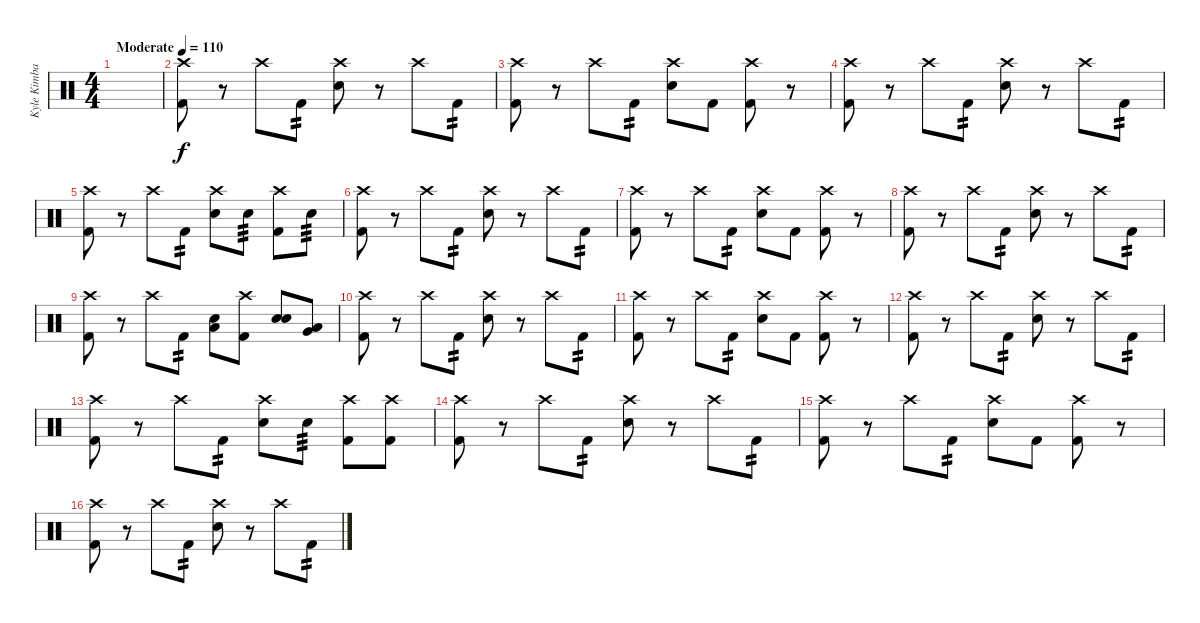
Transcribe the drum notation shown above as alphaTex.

\track ("Kyle Kimball" "Kyle Kimba") {instrument percussion}
\staff
\articulation defaults
\ts (4 4)
\tempo (110 "Moderate")
\clef neutral
\ks c
|
("Kick (hit) 2" "Crash high (hit)").8 r.8 "Crash high (hit)".8 "Kick (hit) 2".8{tp 2} ("Electric Snare (hit)" "Crash high (hit)").8 r.8 "Crash high (hit)".8 "Kick (hit) 2".8{tp 2} |
("Kick (hit) 2" "Crash high (hit)").8 r.8 "Crash high (hit)".8 "Kick (hit) 2".8{tp 2} ("Electric Snare (hit)" "Crash high (hit)").8 "Kick (hit) 2".8 ("Kick (hit) 2" "Crash high (hit)").8 r.8 |
("Kick (hit) 2" "Crash high (hit)").8 r.8 "Crash high (hit)".8 "Kick (hit) 2".8{tp 2} ("Electric Snare (hit)" "Crash high (hit)").8 r.8 "Crash high (hit)".8 "Kick (hit) 2".8{tp 2} |
("Kick (hit) 2" "Crash high (hit)").8 r.8 "Crash high (hit)".8 "Kick (hit) 2".8{tp 2} ("Electric Snare (hit)" "Crash high (hit)").8 "Electric Snare (hit)".8{tp 3} ("Kick (hit) 2" "Crash high (hit)").8 "Electric Snare (hit)".8{tp 3} |
("Kick (hit) 2" "Crash high (hit)").8 r.8 "Crash high (hit)".8 "Kick (hit) 2".8{tp 2} ("Electric Snare (hit)" "Crash high (hit)").8 r.8 "Crash high (hit)".8 "Kick (hit) 2".8{tp 2} |
("Kick (hit) 2" "Crash high (hit)").8 r.8 "Crash high (hit)".8 "Kick (hit) 2".8{tp 2} ("Electric Snare (hit)" "Crash high (hit)").8 "Kick (hit) 2".8 ("Kick (hit) 2" "Crash high (hit)").8 r.8 |
("Kick (hit) 2" "Crash high (hit)").8 r.8 "Crash high (hit)".8 "Kick (hit) 2".8{tp 2} ("Electric Snare (hit)" "Crash high (hit)").8 r.8 "Crash high (hit)".8 "Kick (hit) 2".8{tp 2} |
("Kick (hit) 2" "Crash high (hit)").8 r.8 "Crash high (hit)".8 "Kick (hit) 2".8{tp 2} ("Electric Snare (hit)" "Low Tom (hit)").8{bd 60} ("Kick (hit) 2" "Crash high (hit)").8 ("Electric Snare (hit)" "Electric Snare (hit)").8{bd 60} ("Low Tom (hit)" "Very Low Tom (hit)").8{bd 60} |
("Kick (hit) 2" "Crash high (hit)").8 r.8 "Crash high (hit)".8 "Kick (hit) 2".8{tp 2} ("Electric Snare (hit)" "Crash high (hit)").8 r.8 "Crash high (hit)".8 "Kick (hit) 2".8{tp 2} |
("Kick (hit) 2" "Crash high (hit)").8 r.8 "Crash high (hit)".8 "Kick (hit) 2".8{tp 2} ("Electric Snare (hit)" "Crash high (hit)").8 "Kick (hit) 2".8 ("Kick (hit) 2" "Crash high (hit)").8 r.8 |
("Kick (hit) 2" "Crash high (hit)").8 r.8 "Crash high (hit)".8 "Kick (hit) 2".8{tp 2} ("Electric Snare (hit)" "Crash high (hit)").8 r.8 "Crash high (hit)".8 "Kick (hit) 2".8{tp 2} |
("Kick (hit) 2" "Crash high (hit)").8 r.8 "Crash high (hit)".8 "Kick (hit) 2".8{tp 2} ("Electric Snare (hit)" "Crash high (hit)").8 "Electric Snare (hit)".8{tp 3} ("Kick (hit) 2" "Crash high (hit)").8 ("Kick (hit) 2" "Crash high (hit)").8 |
("Kick (hit) 2" "Crash high (hit)").8 r.8 "Crash high (hit)".8 "Kick (hit) 2".8{tp 2} ("Electric Snare (hit)" "Crash high (hit)").8 r.8 "Crash high (hit)".8 "Kick (hit) 2".8{tp 2} |
("Kick (hit) 2" "Crash high (hit)").8 r.8 "Crash high (hit)".8 "Kick (hit) 2".8{tp 2} ("Electric Snare (hit)" "Crash high (hit)").8 "Kick (hit) 2".8 ("Kick (hit) 2" "Crash high (hit)").8 r.8 |
("Kick (hit) 2" "Crash high (hit)").8 r.8 "Crash high (hit)".8 "Kick (hit) 2".8{tp 2} ("Electric Snare (hit)" "Crash high (hit)").8 r.8 "Crash high (hit)".8 "Kick (hit) 2".8{tp 2}
